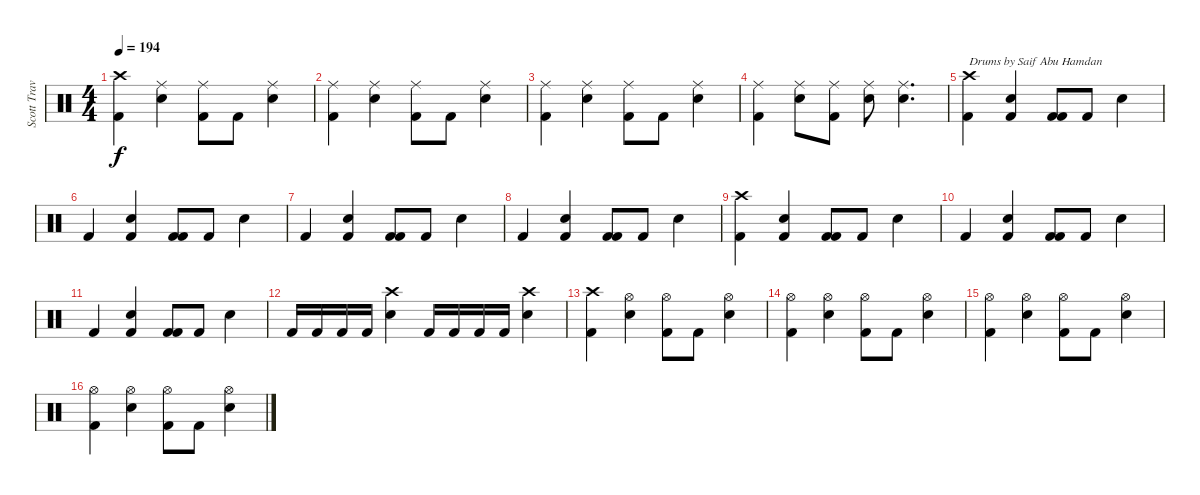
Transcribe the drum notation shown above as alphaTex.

\track ("Scott Travis" "Scott Trav") {instrument percussion}
\staff {score}
\articulation defaults
\ts (4 4)
\tempo 194
\clef neutral
\ks c
("Kick (hit) 2" "Crash high (hit)").4{dy f} ("Ride (middle)" "Snare (hit) 2").4 ("Ride (middle)" "Kick (hit) 2").8 "Kick (hit) 2".8 ("Snare (hit) 2" "Ride (middle)").4 |
("Kick (hit) 2" "Ride (middle)").4 ("Ride (middle)" "Snare (hit) 2").4 ("Ride (middle)" "Kick (hit) 2").8 "Kick (hit) 2".8 ("Snare (hit) 2" "Ride (middle)").4 |
("Kick (hit) 2" "Ride (middle)").4 ("Ride (middle)" "Snare (hit) 2").4 ("Ride (middle)" "Kick (hit) 2").8 "Kick (hit) 2".8 ("Snare (hit) 2" "Ride (middle)").4 |
("Kick (hit) 2" "Ride (middle)").4 ("Ride (middle)" "Snare (hit) 2").8 ("Ride (middle)" "Kick (hit) 2").8 ("Ride (middle)" "Snare (hit) 2").8 ("Ride (middle)" "Snare (hit) 2").4{d} |
("Kick (hit) 2" "Crash high (hit)").4{txt "Drums by Saif Abu Hamdan"} ("Kick (hit) 2" "Snare (hit) 2").4 ("Kick (hit) 2" "Kick (hit) 2").8 "Kick (hit) 2".8 "Snare (hit) 2".4 |
"Kick (hit) 2".4 ("Kick (hit) 2" "Snare (hit) 2").4 ("Kick (hit) 2" "Kick (hit) 2").8 "Kick (hit) 2".8 "Snare (hit) 2".4 |
"Kick (hit) 2".4 ("Kick (hit) 2" "Snare (hit) 2").4 ("Kick (hit) 2" "Kick (hit) 2").8 "Kick (hit) 2".8 "Snare (hit) 2".4 |
"Kick (hit) 2".4 ("Kick (hit) 2" "Snare (hit) 2").4 ("Kick (hit) 2" "Kick (hit) 2").8 "Kick (hit) 2".8 "Snare (hit) 2".4 |
("Kick (hit) 2" "Crash high (hit)").4 ("Kick (hit) 2" "Snare (hit) 2").4 ("Kick (hit) 2" "Kick (hit) 2").8 "Kick (hit) 2".8 "Snare (hit) 2".4 |
"Kick (hit) 2".4 ("Kick (hit) 2" "Snare (hit) 2").4 ("Kick (hit) 2" "Kick (hit) 2").8 "Kick (hit) 2".8 "Snare (hit) 2".4 |
"Kick (hit) 2".4 ("Kick (hit) 2" "Snare (hit) 2").4 ("Kick (hit) 2" "Kick (hit) 2").8 "Kick (hit) 2".8 "Snare (hit) 2".4 |
"Kick (hit) 2".16 "Kick (hit) 2".16 "Kick (hit) 2".16 "Kick (hit) 2".16 ("Crash high (hit)" "Snare (hit) 2").4 "Kick (hit) 2".16 "Kick (hit) 2".16 "Kick (hit) 2".16 "Kick (hit) 2".16 ("Crash high (hit)" "Snare (hit) 2").4 |
("Kick (hit) 2" "Crash high (hit)").4 ("Hi-Hat (open)" "Snare (hit) 2").4 ("Hi-Hat (open)" "Kick (hit) 2").8 "Kick (hit) 2".8 ("Snare (hit) 2" "Hi-Hat (open)").4 |
("Kick (hit) 2" "Hi-Hat (open)").4 ("Hi-Hat (open)" "Snare (hit) 2").4 ("Hi-Hat (open)" "Kick (hit) 2").8 "Kick (hit) 2".8 ("Snare (hit) 2" "Hi-Hat (open)").4 |
("Kick (hit) 2" "Hi-Hat (open)").4 ("Hi-Hat (open)" "Snare (hit) 2").4 ("Hi-Hat (open)" "Kick (hit) 2").8 "Kick (hit) 2".8 ("Snare (hit) 2" "Hi-Hat (open)").4 |
("Kick (hit) 2" "Hi-Hat (open)").4 ("Hi-Hat (open)" "Snare (hit) 2").4 ("Hi-Hat (open)" "Kick (hit) 2").8 "Kick (hit) 2".8 ("Snare (hit) 2" "Hi-Hat (open)").4
